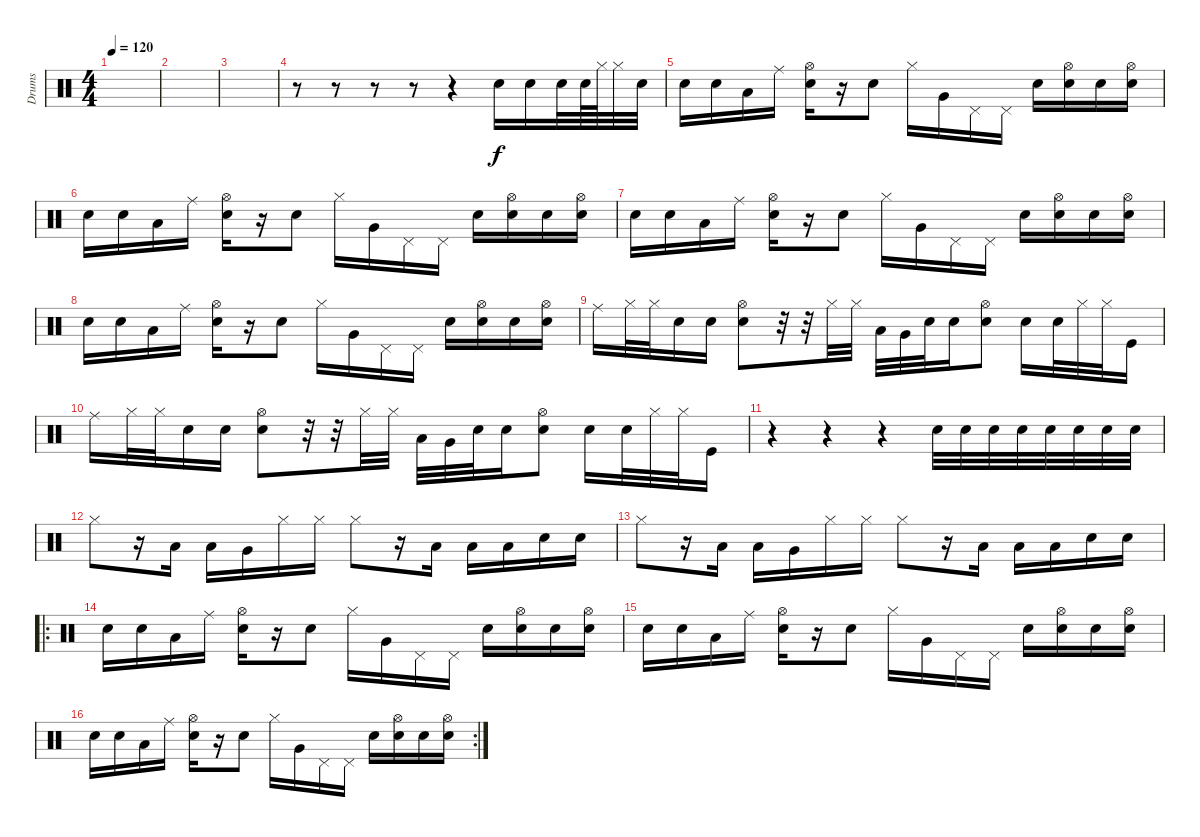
\track ("Drums" "Drums") {instrument percussion}
\staff {score}
\articulation defaults
\ts (4 4)
\tempo 120
\clef neutral
\ks c
|
|
|
r.8 r.8 r.8 r.8 r.4 "Snare (hit) 2".16 "Snare (hit) 2".16 "Snare (hit) 2".32 "Snare (hit) 2".64 "Hi-Hat (closed)".64 "Hi-Hat (closed)".32 "Electric Snare (hit)".32 |
"Snare (hit) 2".16 "Snare (hit) 2".16 "Low Floor Tom (hit)".16 "Ride (middle)".16 ("Electric Snare (hit)" "Hi-Hat (open)").16 r.16 "Electric Snare (hit)".8 "Hi-Hat (closed)".16 "Very Low Tom (hit)".16 "Pedal Hi-Hat (hit)".16 "Pedal Hi-Hat (hit)".16 "Electric Snare (hit)".16 ("Electric Snare (hit)" "Hi-Hat (open)").16 "Electric Snare (hit)".16 ("Electric Snare (hit)" "Hi-Hat (open)").16 |
"Snare (hit) 2".16 "Snare (hit) 2".16 "Low Floor Tom (hit)".16 "Ride (middle)".16 ("Electric Snare (hit)" "Hi-Hat (open)").16 r.16 "Electric Snare (hit)".8 "Hi-Hat (closed)".16 "Very Low Tom (hit)".16 "Pedal Hi-Hat (hit)".16 "Pedal Hi-Hat (hit)".16 "Electric Snare (hit)".16 ("Electric Snare (hit)" "Hi-Hat (open)").16 "Electric Snare (hit)".16 ("Electric Snare (hit)" "Hi-Hat (open)").16 |
"Snare (hit) 2".16 "Snare (hit) 2".16 "Low Floor Tom (hit)".16 "Ride (middle)".16 ("Electric Snare (hit)" "Hi-Hat (open)").16 r.16 "Electric Snare (hit)".8 "Hi-Hat (closed)".16 "Very Low Tom (hit)".16 "Pedal Hi-Hat (hit)".16 "Pedal Hi-Hat (hit)".16 "Electric Snare (hit)".16 ("Electric Snare (hit)" "Hi-Hat (open)").16 "Electric Snare (hit)".16 ("Electric Snare (hit)" "Hi-Hat (open)").16 |
"Snare (hit) 2".16 "Snare (hit) 2".16 "Low Floor Tom (hit)".16 "Ride (middle)".16 ("Electric Snare (hit)" "Hi-Hat (open)").16 r.16 "Electric Snare (hit)".8 "Hi-Hat (closed)".16 "Very Low Tom (hit)".16 "Pedal Hi-Hat (hit)".16 "Pedal Hi-Hat (hit)".16 "Electric Snare (hit)".16 ("Electric Snare (hit)" "Hi-Hat (open)").16 "Electric Snare (hit)".16 ("Electric Snare (hit)" "Hi-Hat (open)").16 |
"Ride (middle)".16 "Hi-Hat (closed)".32 "Hi-Hat (closed)".32 "Electric Snare (hit)".16 "Electric Snare (hit)".16 ("Electric Snare (hit)" "Hi-Hat (open)").8 r.32 r.32 "Hi-Hat (closed)".32 "Hi-Hat (closed)".32 "Low Floor Tom (hit)".32 "Very Low Tom (hit)".32 "Electric Snare (hit)".32 "Electric Snare (hit)".16 ("Electric Snare (hit)" "Hi-Hat (open)").8 "Electric Snare (hit)".16 "Electric Snare (hit)".32 "Hi-Hat (closed)".32 "Hi-Hat (closed)".32 "Kick (hit)".16 |
"Ride (middle)".16 "Hi-Hat (closed)".32 "Hi-Hat (closed)".32 "Electric Snare (hit)".16 "Electric Snare (hit)".16 ("Electric Snare (hit)" "Hi-Hat (open)").8 r.32 r.32 "Hi-Hat (closed)".32 "Hi-Hat (closed)".32 "Low Floor Tom (hit)".32 "Very Low Tom (hit)".32 "Electric Snare (hit)".32 "Electric Snare (hit)".16 ("Electric Snare (hit)" "Hi-Hat (open)").8 "Electric Snare (hit)".16 "Electric Snare (hit)".32 "Hi-Hat (closed)".32 "Hi-Hat (closed)".32 "Kick (hit)".16 |
r.4 r.4 r.4 "Snare (hit) 2".32 "Snare (hit) 2".32 "Snare (hit) 2".32 "Snare (hit) 2".32 "Snare (hit) 2".32 "Snare (hit) 2".32 "Snare (hit) 2".32 "Snare (hit) 2".32 |
"Hi-Hat (closed)".8 r.16 "Low Floor Tom (hit)".16 "Low Floor Tom (hit)".16 "Very Low Tom (hit)".16 "Hi-Hat (closed)".16 "Hi-Hat (closed)".16 "Hi-Hat (closed)".8 r.16 "Low Floor Tom (hit)".16 "Low Tom (hit)".16 "Low Tom (hit)".16 "Electric Snare (hit)".16 "Electric Snare (hit)".16 |
"Hi-Hat (closed)".8 r.16 "Low Floor Tom (hit)".16 "Low Floor Tom (hit)".16 "Very Low Tom (hit)".16 "Hi-Hat (closed)".16 "Hi-Hat (closed)".16 "Hi-Hat (closed)".8 r.16 "Low Floor Tom (hit)".16 "Low Tom (hit)".16 "Low Tom (hit)".16 "Electric Snare (hit)".16 "Electric Snare (hit)".16 |
\ro "Snare (hit) 2".16 "Snare (hit) 2".16 "Low Floor Tom (hit)".16 "Ride (middle)".16
("Electric Snare (hit)" "Hi-Hat (open)").16 r.16 "Electric Snare (hit)".8 "Hi-Hat (closed)".16 "Very Low Tom (hit)".16 "Pedal Hi-Hat (hit)".16 "Pedal Hi-Hat (hit)".16 "Electric Snare (hit)".16 ("Electric Snare (hit)" "Hi-Hat (open)").16 "Electric Snare (hit)".16 ("Electric Snare (hit)" "Hi-Hat (open)").16 |
"Snare (hit) 2".16 "Snare (hit) 2".16 "Low Floor Tom (hit)".16 "Ride (middle)".16 ("Electric Snare (hit)" "Hi-Hat (open)").16 r.16 "Electric Snare (hit)".8 "Hi-Hat (closed)".16 "Very Low Tom (hit)".16 "Pedal Hi-Hat (hit)".16 "Pedal Hi-Hat (hit)".16 "Electric Snare (hit)".16 ("Electric Snare (hit)" "Hi-Hat (open)").16 "Electric Snare (hit)".16 ("Electric Snare (hit)" "Hi-Hat (open)").16 |
\rc 2 "Snare (hit) 2".16 "Snare (hit) 2".16 "Low Floor Tom (hit)".16 "Ride (middle)".16
("Electric Snare (hit)" "Hi-Hat (open)").16 r.16 "Electric Snare (hit)".8 "Hi-Hat (closed)".16 "Very Low Tom (hit)".16 "Pedal Hi-Hat (hit)".16 "Pedal Hi-Hat (hit)".16 "Electric Snare (hit)".16 ("Electric Snare (hit)" "Hi-Hat (open)").16 "Electric Snare (hit)".16 ("Electric Snare (hit)" "Hi-Hat (open)").16
